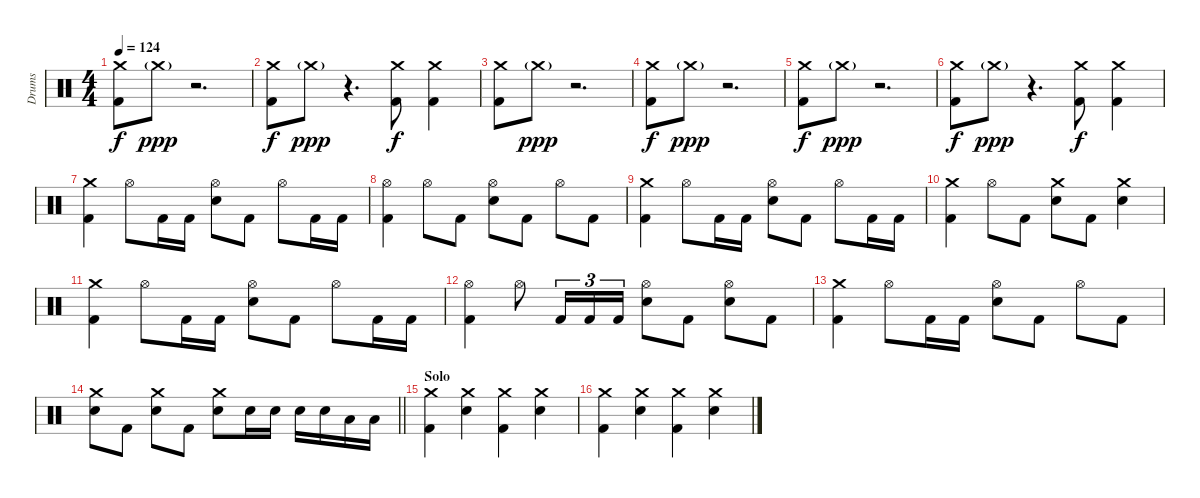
\track ("Drums" "Drums") {instrument percussion}
\staff {score}
\articulation defaults
\ts (4 4)
\tempo 124
\clef neutral
\ks c
("Crash medium (hit)" "Kick (hit) 2").8{dy f} "Crash medium (hit)"{g}.8{dy ppp} r.2{d} |
("Crash medium (hit)" "Kick (hit) 2").8{dy f} "Crash medium (hit)"{g}.8{dy ppp} r.4{d} ("Crash medium (hit)" "Kick (hit) 2").8{dy f} ("Crash medium (hit)" "Kick (hit) 2").4 |
("Crash medium (hit)" "Kick (hit) 2").8 "Crash medium (hit)"{g}.8{dy ppp} r.2{d} |
("Crash medium (hit)" "Kick (hit) 2").8{dy f} "Crash medium (hit)"{g}.8{dy ppp} r.2{d} |
("Crash medium (hit)" "Kick (hit) 2").8{dy f} "Crash medium (hit)"{g}.8{dy ppp} r.2{d} |
("Crash medium (hit)" "Kick (hit) 2").8{dy f} "Crash medium (hit)"{g}.8{dy ppp} r.4{d} ("Crash medium (hit)" "Kick (hit) 2").8{dy f} ("Crash medium (hit)" "Kick (hit) 2").4 |
("Crash medium (hit)" "Kick (hit) 2").4 "Hi-Hat (open)".8 "Kick (hit) 2".16 "Kick (hit) 2".16 ("Hi-Hat (open)" "Electric Snare (hit)").8 "Kick (hit) 2".8 "Hi-Hat (open)".8 "Kick (hit) 2".16 "Kick (hit) 2".16 |
("Hi-Hat (open)" "Kick (hit) 2").4 "Hi-Hat (open)".8 "Kick (hit) 2".8 ("Hi-Hat (open)" "Electric Snare (hit)").8 "Kick (hit) 2".8 "Hi-Hat (open)".8 "Kick (hit) 2".8 |
("Crash medium (hit)" "Kick (hit) 2").4 "Hi-Hat (open)".8 "Kick (hit) 2".16 "Kick (hit) 2".16 ("Hi-Hat (open)" "Electric Snare (hit)").8 "Kick (hit) 2".8 "Hi-Hat (open)".8 "Kick (hit) 2".16 "Kick (hit) 2".16 |
("Crash medium (hit)" "Kick (hit) 2").4 "Hi-Hat (open)".8 "Kick (hit) 2".8 ("Crash medium (hit)" "Electric Snare (hit)").8 "Kick (hit) 2".8 ("Crash medium (hit)" "Electric Snare (hit)").4 |
("Crash medium (hit)" "Kick (hit) 2").4 "Hi-Hat (open)".8 "Kick (hit) 2".16 "Kick (hit) 2".16 ("Hi-Hat (open)" "Electric Snare (hit)").8 "Kick (hit) 2".8 "Hi-Hat (open)".8 "Kick (hit) 2".16 "Kick (hit) 2".16 |
("Hi-Hat (open)" "Kick (hit) 2").4 "Hi-Hat (open)".8 "Kick (hit) 2".16{tu (3 2)} "Kick (hit) 2".16{tu (3 2)} "Kick (hit) 2".16{tu (3 2)} ("Hi-Hat (open)" "Electric Snare (hit)").8 "Kick (hit) 2".8 ("Hi-Hat (open)" "Electric Snare (hit)").8 "Kick (hit) 2".8 |
("Crash medium (hit)" "Kick (hit) 2").4 "Hi-Hat (open)".8 "Kick (hit) 2".16 "Kick (hit) 2".16 ("Hi-Hat (open)" "Electric Snare (hit)").8 "Kick (hit) 2".8 "Hi-Hat (open)".8 "Kick (hit) 2".8 |
\barLineRight lightlight
("Crash medium (hit)" "Electric Snare (hit)").8 "Kick (hit) 2".8 ("Crash medium (hit)" "Electric Snare (hit)").8 "Kick (hit) 2".8 ("Crash medium (hit)" "Electric Snare (hit)").8 "Electric Snare (hit)".16 "Electric Snare (hit)".16 "Electric Snare (hit)".16 "Electric Snare (hit)".16 "Low Tom (hit)".16 "Low Tom (hit)".16 |
\section ("" "Solo")
("Crash medium (hit)" "Kick (hit) 2").4 ("Crash medium (hit)" "Electric Snare (hit)").4 ("Crash medium (hit)" "Kick (hit) 2").4 ("Crash medium (hit)" "Electric Snare (hit)").4 |
("Crash medium (hit)" "Kick (hit) 2").4 ("Crash medium (hit)" "Electric Snare (hit)").4 ("Crash medium (hit)" "Kick (hit) 2").4 ("Crash medium (hit)" "Electric Snare (hit)").4
